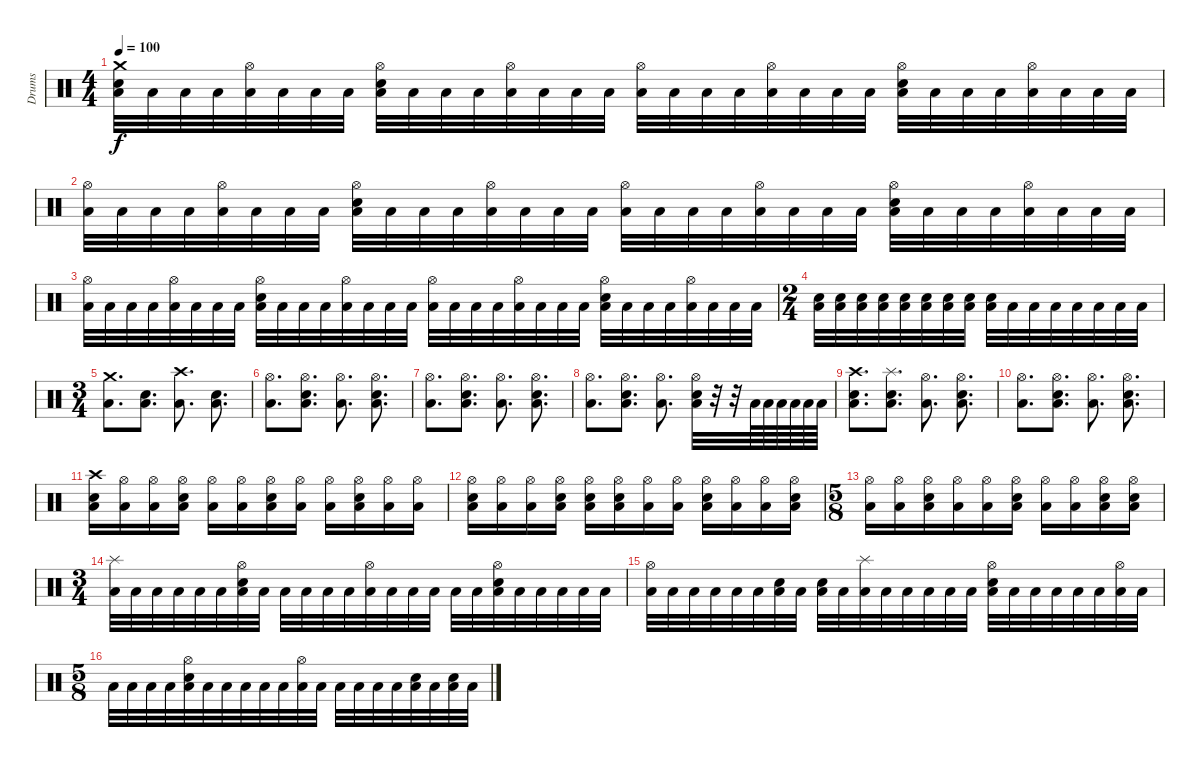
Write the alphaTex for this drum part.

\track ("Drums" "Drums") {instrument percussion}
\staff {score}
\articulation defaults
\ts (4 4)
\tempo 100
\clef neutral
\ks c
("Crash medium (hit)" "Electric Snare (hit)" "Low Floor Tom (hit)").32{dy f} "Low Floor Tom (hit)".32 "Low Floor Tom (hit)".32 "Low Floor Tom (hit)".32 ("Hi-Hat (open)" "Low Floor Tom (hit)").32 "Low Floor Tom (hit)".32 "Low Floor Tom (hit)".32 "Low Floor Tom (hit)".32 ("Hi-Hat (open)" "Electric Snare (hit)" "Low Floor Tom (hit)").32 "Low Floor Tom (hit)".32 "Low Floor Tom (hit)".32 "Low Floor Tom (hit)".32 ("Hi-Hat (open)" "Low Floor Tom (hit)").32 "Low Floor Tom (hit)".32 "Low Floor Tom (hit)".32 "Low Floor Tom (hit)".32 ("Hi-Hat (open)" "Low Floor Tom (hit)").32 "Low Floor Tom (hit)".32 "Low Floor Tom (hit)".32 "Low Floor Tom (hit)".32 ("Hi-Hat (open)" "Low Floor Tom (hit)").32 "Low Floor Tom (hit)".32 "Low Floor Tom (hit)".32 "Low Floor Tom (hit)".32 ("Hi-Hat (open)" "Electric Snare (hit)" "Low Floor Tom (hit)").32 "Low Floor Tom (hit)".32 "Low Floor Tom (hit)".32 "Low Floor Tom (hit)".32 ("Hi-Hat (open)" "Low Floor Tom (hit)").32 "Low Floor Tom (hit)".32 "Low Floor Tom (hit)".32 "Low Floor Tom (hit)".32 |
("Hi-Hat (open)" "Low Floor Tom (hit)").32 "Low Floor Tom (hit)".32 "Low Floor Tom (hit)".32 "Low Floor Tom (hit)".32 ("Hi-Hat (open)" "Low Floor Tom (hit)").32 "Low Floor Tom (hit)".32 "Low Floor Tom (hit)".32 "Low Floor Tom (hit)".32 ("Hi-Hat (open)" "Electric Snare (hit)" "Low Floor Tom (hit)").32 "Low Floor Tom (hit)".32 "Low Floor Tom (hit)".32 "Low Floor Tom (hit)".32 ("Hi-Hat (open)" "Low Floor Tom (hit)").32 "Low Floor Tom (hit)".32 "Low Floor Tom (hit)".32 "Low Floor Tom (hit)".32 ("Hi-Hat (open)" "Low Floor Tom (hit)").32 "Low Floor Tom (hit)".32 "Low Floor Tom (hit)".32 "Low Floor Tom (hit)".32 ("Hi-Hat (open)" "Low Floor Tom (hit)").32 "Low Floor Tom (hit)".32 "Low Floor Tom (hit)".32 "Low Floor Tom (hit)".32 ("Hi-Hat (open)" "Electric Snare (hit)" "Low Floor Tom (hit)").32 "Low Floor Tom (hit)".32 "Low Floor Tom (hit)".32 "Low Floor Tom (hit)".32 ("Hi-Hat (open)" "Low Floor Tom (hit)").32 "Low Floor Tom (hit)".32 "Low Floor Tom (hit)".32 "Low Floor Tom (hit)".32 |
("Hi-Hat (open)" "Low Floor Tom (hit)").32 "Low Floor Tom (hit)".32 "Low Floor Tom (hit)".32 "Low Floor Tom (hit)".32 ("Hi-Hat (open)" "Low Floor Tom (hit)").32 "Low Floor Tom (hit)".32 "Low Floor Tom (hit)".32 "Low Floor Tom (hit)".32 ("Hi-Hat (open)" "Electric Snare (hit)" "Low Floor Tom (hit)").32 "Low Floor Tom (hit)".32 "Low Floor Tom (hit)".32 "Low Floor Tom (hit)".32 ("Hi-Hat (open)" "Low Floor Tom (hit)").32 "Low Floor Tom (hit)".32 "Low Floor Tom (hit)".32 "Low Floor Tom (hit)".32 ("Hi-Hat (open)" "Low Floor Tom (hit)").32 "Low Floor Tom (hit)".32 "Low Floor Tom (hit)".32 "Low Floor Tom (hit)".32 ("Hi-Hat (open)" "Low Floor Tom (hit)").32 "Low Floor Tom (hit)".32 "Low Floor Tom (hit)".32 "Low Floor Tom (hit)".32 ("Hi-Hat (open)" "Electric Snare (hit)" "Low Floor Tom (hit)").32 "Low Floor Tom (hit)".32 "Low Floor Tom (hit)".32 "Low Floor Tom (hit)".32 ("Hi-Hat (open)" "Low Floor Tom (hit)").32 "Low Floor Tom (hit)".32 "Low Floor Tom (hit)".32 "Low Floor Tom (hit)".32 |
\ts (2 4)
("Electric Snare (hit)" "Low Floor Tom (hit)").32 ("Electric Snare (hit)" "Low Floor Tom (hit)").32 ("Electric Snare (hit)" "Low Floor Tom (hit)").32 ("Electric Snare (hit)" "Low Floor Tom (hit)").32 ("Electric Snare (hit)" "Low Floor Tom (hit)").32 ("Electric Snare (hit)" "Low Floor Tom (hit)").32 ("Electric Snare (hit)" "Low Floor Tom (hit)").32 ("Electric Snare (hit)" "Low Floor Tom (hit)").32 ("Electric Snare (hit)" "Low Floor Tom (hit)").32 "Low Floor Tom (hit)".32 "Low Floor Tom (hit)".32 "Low Floor Tom (hit)".32 "Low Floor Tom (hit)".32 "Low Floor Tom (hit)".32 "Low Floor Tom (hit)".32 "Low Floor Tom (hit)".32 |
\ts (3 4)
("Crash medium (hit)" "Low Floor Tom (hit)").8{d} ("Electric Snare (hit)" "Low Floor Tom (hit)").8{d} ("Crash high (hit)" "Low Floor Tom (hit)").8{d} ("Electric Snare (hit)" "Low Floor Tom (hit)").8{d} |
("Hi-Hat (open)" "Low Floor Tom (hit)").8{d} ("Hi-Hat (open)" "Electric Snare (hit)" "Low Floor Tom (hit)").8{d} ("Hi-Hat (open)" "Low Floor Tom (hit)").8{d} ("Hi-Hat (open)" "Electric Snare (hit)" "Low Floor Tom (hit)").8{d} |
("Hi-Hat (open)" "Low Floor Tom (hit)").8{d} ("Hi-Hat (open)" "Electric Snare (hit)" "Low Floor Tom (hit)").8{d} ("Hi-Hat (open)" "Low Floor Tom (hit)").8{d} ("Hi-Hat (open)" "Electric Snare (hit)" "Low Floor Tom (hit)").8{d} |
("Hi-Hat (open)" "Low Floor Tom (hit)").8{d} ("Hi-Hat (open)" "Electric Snare (hit)" "Low Floor Tom (hit)").8{d} ("Hi-Hat (open)" "Low Floor Tom (hit)").8{d} ("Hi-Hat (open)" "Electric Snare (hit)" "Low Floor Tom (hit)").32 r.32 r.32 "Low Floor Tom (hit)".64 "Low Floor Tom (hit)".64 "Low Floor Tom (hit)".64 "Low Floor Tom (hit)".64 "Low Floor Tom (hit)".64 "Low Floor Tom (hit)".64 |
("Crash high (hit)" "Electric Snare (hit)" "Low Floor Tom (hit)").8{d} ("Splash (hit)" "Electric Snare (hit)" "Low Floor Tom (hit)").8{d} ("Hi-Hat (open)" "Low Floor Tom (hit)").8{d} ("Hi-Hat (open)" "Electric Snare (hit)" "Low Floor Tom (hit)").8{d} |
("Hi-Hat (open)" "Low Floor Tom (hit)").8{d} ("Hi-Hat (open)" "Electric Snare (hit)" "Low Floor Tom (hit)").8{d} ("Hi-Hat (open)" "Low Floor Tom (hit)").8{d} ("Hi-Hat (open)" "Electric Snare (hit)" "Low Floor Tom (hit)").8{d} |
("Crash high (hit)" "Electric Snare (hit)" "Low Floor Tom (hit)").16 ("Hi-Hat (open)" "Low Floor Tom (hit)").16 ("Hi-Hat (open)" "Low Floor Tom (hit)").16 ("Hi-Hat (open)" "Electric Snare (hit)" "Low Floor Tom (hit)").16 ("Hi-Hat (open)" "Low Floor Tom (hit)").16 ("Hi-Hat (open)" "Low Floor Tom (hit)").16 ("Hi-Hat (open)" "Electric Snare (hit)" "Low Floor Tom (hit)").16 ("Hi-Hat (open)" "Low Floor Tom (hit)").16 ("Hi-Hat (open)" "Low Floor Tom (hit)").16 ("Hi-Hat (open)" "Electric Snare (hit)" "Low Floor Tom (hit)").16 ("Hi-Hat (open)" "Low Floor Tom (hit)").16 ("Hi-Hat (open)" "Low Floor Tom (hit)").16 |
("Hi-Hat (open)" "Electric Snare (hit)" "Low Floor Tom (hit)").16 ("Hi-Hat (open)" "Low Floor Tom (hit)").16 ("Hi-Hat (open)" "Low Floor Tom (hit)").16 ("Hi-Hat (open)" "Electric Snare (hit)" "Low Floor Tom (hit)").16 ("Hi-Hat (open)" "Electric Snare (hit)" "Low Floor Tom (hit)").16 ("Hi-Hat (open)" "Electric Snare (hit)" "Low Floor Tom (hit)").16 ("Hi-Hat (open)" "Low Floor Tom (hit)").16 ("Hi-Hat (open)" "Low Floor Tom (hit)").16 ("Hi-Hat (open)" "Electric Snare (hit)" "Low Floor Tom (hit)").16 ("Hi-Hat (open)" "Low Floor Tom (hit)").16 ("Hi-Hat (open)" "Low Floor Tom (hit)").16 ("Hi-Hat (open)" "Electric Snare (hit)" "Low Floor Tom (hit)").16 |
\ts (5 8)
("Hi-Hat (open)" "Low Floor Tom (hit)").16 ("Hi-Hat (open)" "Low Floor Tom (hit)").16 ("Hi-Hat (open)" "Electric Snare (hit)" "Low Floor Tom (hit)").16 ("Hi-Hat (open)" "Low Floor Tom (hit)").16 ("Hi-Hat (open)" "Low Floor Tom (hit)").16 ("Hi-Hat (open)" "Electric Snare (hit)" "Low Floor Tom (hit)").16 ("Hi-Hat (open)" "Low Floor Tom (hit)").16 ("Hi-Hat (open)" "Low Floor Tom (hit)").16 ("Hi-Hat (open)" "Electric Snare (hit)" "Low Floor Tom (hit)").16 ("Hi-Hat (open)" "Electric Snare (hit)" "Low Floor Tom (hit)").16 |
\ts (3 4)
("Splash (hit)" "Low Floor Tom (hit)").32 "Low Floor Tom (hit)".32 "Low Floor Tom (hit)".32 "Low Floor Tom (hit)".32 "Low Floor Tom (hit)".32 "Low Floor Tom (hit)".32 ("Hi-Hat (open)" "Electric Snare (hit)" "Low Floor Tom (hit)").32 "Low Floor Tom (hit)".32 "Low Floor Tom (hit)".32 "Low Floor Tom (hit)".32 "Low Floor Tom (hit)".32 "Low Floor Tom (hit)".32 ("Hi-Hat (open)" "Low Floor Tom (hit)").32 "Low Floor Tom (hit)".32 "Low Floor Tom (hit)".32 "Low Floor Tom (hit)".32 "Low Floor Tom (hit)".32 "Low Floor Tom (hit)".32 ("Hi-Hat (open)" "Electric Snare (hit)" "Low Floor Tom (hit)").32 "Low Floor Tom (hit)".32 "Low Floor Tom (hit)".32 "Low Floor Tom (hit)".32 "Low Floor Tom (hit)".32 "Low Floor Tom (hit)".32 |
("Hi-Hat (open)" "Low Floor Tom (hit)").32 "Low Floor Tom (hit)".32 "Low Floor Tom (hit)".32 "Low Floor Tom (hit)".32 "Low Floor Tom (hit)".32 "Low Floor Tom (hit)".32 ("Electric Snare (hit)" "Low Floor Tom (hit)").32 "Low Floor Tom (hit)".32 ("Electric Snare (hit)" "Low Floor Tom (hit)").32 "Low Floor Tom (hit)".32 ("Splash (hit)" "Low Floor Tom (hit)").32 "Low Floor Tom (hit)".32 "Low Floor Tom (hit)".32 "Low Floor Tom (hit)".32 "Low Floor Tom (hit)".32 "Low Floor Tom (hit)".32 ("Hi-Hat (open)" "Electric Snare (hit)" "Low Floor Tom (hit)").32 "Low Floor Tom (hit)".32 "Low Floor Tom (hit)".32 "Low Floor Tom (hit)".32 "Low Floor Tom (hit)".32 "Low Floor Tom (hit)".32 ("Hi-Hat (open)" "Low Floor Tom (hit)").32 "Low Floor Tom (hit)".32 |
\ts (5 8)
"Low Floor Tom (hit)".32 "Low Floor Tom (hit)".32 "Low Floor Tom (hit)".32 "Low Floor Tom (hit)".32 ("Hi-Hat (open)" "Electric Snare (hit)" "Low Floor Tom (hit)").32 "Low Floor Tom (hit)".32 "Low Floor Tom (hit)".32 "Low Floor Tom (hit)".32 "Low Floor Tom (hit)".32 "Low Floor Tom (hit)".32 ("Hi-Hat (open)" "Low Floor Tom (hit)").32 "Low Floor Tom (hit)".32 "Low Floor Tom (hit)".32 "Low Floor Tom (hit)".32 "Low Floor Tom (hit)".32 "Low Floor Tom (hit)".32 ("Electric Snare (hit)" "Low Floor Tom (hit)").32 "Low Floor Tom (hit)".32 ("Electric Snare (hit)" "Low Floor Tom (hit)").32 "Low Floor Tom (hit)".32
